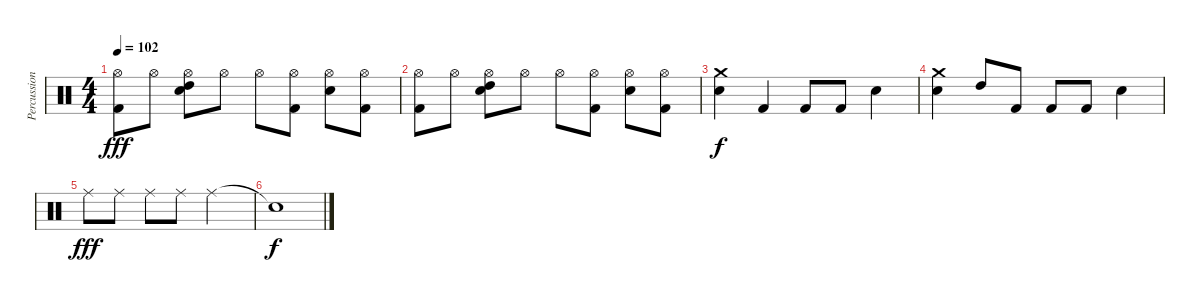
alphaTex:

\track ("Percussions" "Percussion") {instrument percussion}
\staff {score}
\articulation defaults
\ts (4 4)
\tempo 102
\clef neutral
\ks c
("Hi-Hat (open)" "Kick (hit) 2").8{dy fff} "Hi-Hat (open)".8 ("Hi-Hat (open)" "High Tom (hit)" "Electric Snare (hit)").8 "Hi-Hat (open)".8 "Hi-Hat (open)".8 ("Hi-Hat (open)" "Kick (hit) 2").8 ("Hi-Hat (open)" "Electric Snare (hit)").8 ("Hi-Hat (open)" "Kick (hit) 2").8 |
("Hi-Hat (open)" "Kick (hit) 2").8 "Hi-Hat (open)".8 ("Hi-Hat (open)" "High Tom (hit)" "Electric Snare (hit)").8 "Hi-Hat (open)".8 "Hi-Hat (open)".8 ("Hi-Hat (open)" "Kick (hit) 2").8 ("Hi-Hat (open)" "Electric Snare (hit)").8 ("Hi-Hat (open)" "Kick (hit) 2").8 |
("Crash medium (hit)" "Electric Snare (hit)").4{dy f} "Kick (hit) 2".4 "Kick (hit) 2".8 "Kick (hit) 2".8 "Electric Snare (hit)".4 |
("Crash medium (hit)" "Electric Snare (hit)").4 "High Tom (hit)".8 "Kick (hit) 2".8 "Kick (hit) 2".8 "Kick (hit) 2".8 "Electric Snare (hit)".4 |
"Ride (middle)".8{dy fff} "Ride (middle)".8 "Ride (middle)".8 "Ride (middle)".8 "Ride (middle)".2 |
"Snare (hit)"{t}.1{dy f}
